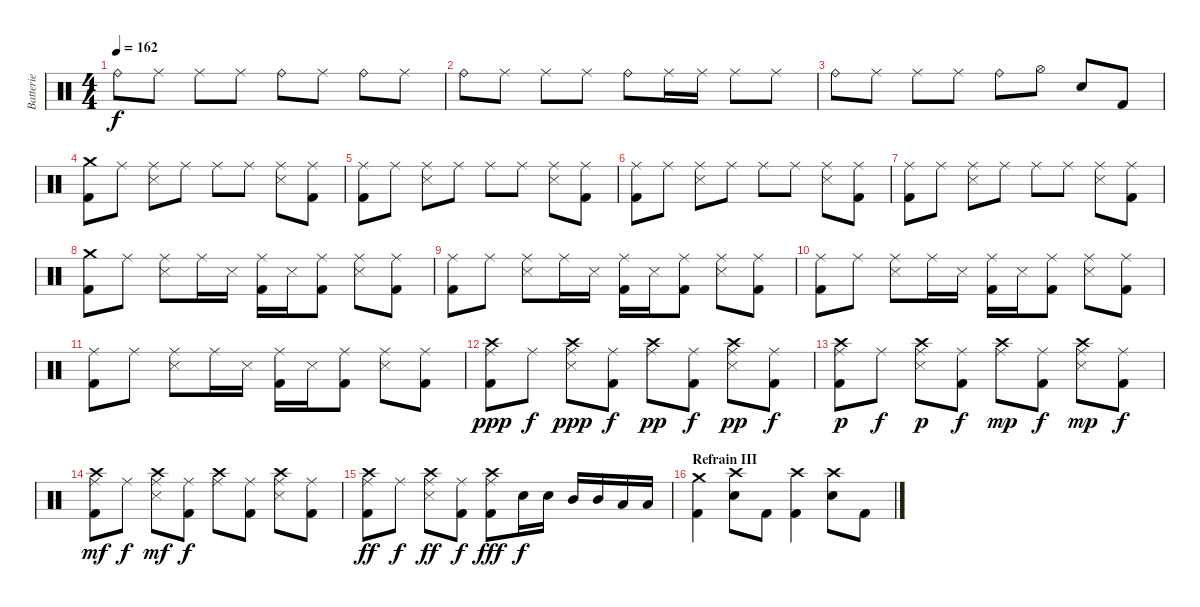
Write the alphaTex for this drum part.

\track ("Batterie" "Batterie") {instrument percussion}
\staff {score}
\articulation defaults
\ts (4 4)
\tempo 162
\clef neutral
\ks c "Ride (bell)".8{dy f} "Ride (middle)".8 "Ride (middle)".8 "Ride (middle)".8 "Ride (bell)".8 "Ride (middle)".8 "Ride (bell)".8 "Ride (middle)".8
|
"Ride (bell)".8 "Ride (middle)".8 "Ride (middle)".8 "Ride (middle)".8 "Ride (bell)".8 "Ride (middle)".16 "Ride (middle)".16 "Ride (middle)".8 "Ride (middle)".8 |
"Ride (bell)".8 "Ride (middle)".8 "Ride (middle)".8 "Ride (middle)".8 "Ride (bell)".8 "Hi-Hat (open)".8 "Electric Snare (hit)".8 "Kick (hit) 2".8 |
("Crash medium (hit)" "Kick (hit) 2").8 "Ride (middle)".8 ("Ride (middle)" "Snare (side stick) 3").8 "Ride (middle)".8 "Ride (middle)".8 "Ride (middle)".8 ("Ride (middle)" "Snare (side stick) 3").8 ("Ride (middle)" "Kick (hit) 2").8 |
("Ride (middle)" "Kick (hit) 2").8 "Ride (middle)".8 ("Ride (middle)" "Snare (side stick) 3").8 "Ride (middle)".8 "Ride (middle)".8 "Ride (middle)".8 ("Ride (middle)" "Snare (side stick) 3").8 ("Ride (middle)" "Kick (hit) 2").8 |
("Ride (middle)" "Kick (hit) 2").8 "Ride (middle)".8 ("Ride (middle)" "Snare (side stick) 3").8 "Ride (middle)".8 "Ride (middle)".8 "Ride (middle)".8 ("Ride (middle)" "Snare (side stick) 3").8 ("Ride (middle)" "Kick (hit) 2").8 |
("Ride (middle)" "Kick (hit) 2").8 "Ride (middle)".8 ("Ride (middle)" "Snare (side stick) 3").8 "Ride (middle)".8 "Ride (middle)".8 "Ride (middle)".8 ("Ride (middle)" "Snare (side stick) 3").8 ("Ride (middle)" "Kick (hit) 2").8 |
("Crash medium (hit)" "Kick (hit) 2").8 "Ride (middle)".8 ("Ride (middle)" "Snare (side stick) 3").8 "Ride (middle)".16 "Snare (side stick) 3".16 ("Ride (middle)" "Kick (hit) 2").16 "Snare (side stick) 3".16 ("Ride (middle)" "Kick (hit) 2").8 ("Ride (middle)" "Snare (side stick) 3").8 ("Ride (middle)" "Kick (hit) 2").8 |
("Ride (middle)" "Kick (hit) 2").8 "Ride (middle)".8 ("Ride (middle)" "Snare (side stick) 3").8 "Ride (middle)".16 "Snare (side stick) 3".16 ("Ride (middle)" "Kick (hit) 2").16 "Snare (side stick) 3".16 ("Ride (middle)" "Kick (hit) 2").8 ("Ride (middle)" "Snare (side stick) 3").8 ("Ride (middle)" "Kick (hit) 2").8 |
("Ride (middle)" "Kick (hit) 2").8 "Ride (middle)".8 ("Ride (middle)" "Snare (side stick) 3").8 "Ride (middle)".16 "Snare (side stick) 3".16 ("Ride (middle)" "Kick (hit) 2").16 "Snare (side stick) 3".16 ("Ride (middle)" "Kick (hit) 2").8 ("Ride (middle)" "Snare (side stick) 3").8 ("Ride (middle)" "Kick (hit) 2").8 |
("Ride (middle)" "Kick (hit) 2").8 "Ride (middle)".8 ("Ride (middle)" "Snare (side stick) 3").8 "Ride (middle)".16 "Snare (side stick) 3".16 ("Ride (middle)" "Kick (hit) 2").16 "Snare (side stick) 3".16 ("Ride (middle)" "Kick (hit) 2").8 ("Ride (middle)" "Snare (side stick) 3").8 ("Ride (middle)" "Kick (hit) 2").8 |
("Crash high (hit)" "Ride (middle)" "Kick (hit) 2").8{dy ppp} "Ride (middle)".8{dy f} ("Crash high (hit)" "Ride (middle)" "Snare (side stick) 3").8{dy ppp} ("Ride (middle)" "Kick (hit) 2").8{dy f} ("Crash high (hit)" "Ride (middle)").8{dy pp} ("Ride (middle)" "Kick (hit) 2").8{dy f} ("Crash high (hit)" "Ride (middle)" "Snare (side stick) 3").8{dy pp} ("Ride (middle)" "Kick (hit) 2").8{dy f} |
("Crash high (hit)" "Ride (middle)" "Kick (hit) 2").8{dy p} "Ride (middle)".8{dy f} ("Crash high (hit)" "Ride (middle)" "Snare (side stick) 3").8{dy p} ("Ride (middle)" "Kick (hit) 2").8{dy f} ("Crash high (hit)" "Ride (middle)").8{dy mp} ("Ride (middle)" "Kick (hit) 2").8{dy f} ("Crash high (hit)" "Ride (middle)" "Snare (side stick) 3").8{dy mp} ("Ride (middle)" "Kick (hit) 2").8{dy f} |
("Crash high (hit)" "Ride (middle)" "Kick (hit) 2").8{dy mf} "Ride (middle)".8{dy f} ("Crash high (hit)" "Ride (middle)" "Snare (side stick) 3").8{dy mf} ("Ride (middle)" "Kick (hit) 2").8{dy f} ("Crash high (hit)" "Ride (middle)").8 ("Ride (middle)" "Kick (hit) 2").8 ("Crash high (hit)" "Ride (middle)" "Snare (side stick) 3").8 ("Ride (middle)" "Kick (hit) 2").8 |
("Crash high (hit)" "Ride (middle)" "Kick (hit) 2").8{dy ff} "Ride (middle)".8{dy f} ("Crash high (hit)" "Ride (middle)" "Snare (side stick) 3").8{dy ff} ("Ride (middle)" "Kick (hit) 2").8{dy f} ("Crash high (hit)" "Ride (middle)" "Kick (hit) 2").8{dy fff} "Electric Snare (hit)".16{dy f} "Electric Snare (hit)".16 "Mid Tom (hit)".16 "Mid Tom (hit)".16 "Low Tom (hit)".16 "Low Tom (hit)".16 |
\section ("" "Refrain III")
("Crash medium (hit)" "Kick (hit) 2").4 ("Crash high (hit)" "Electric Snare (hit)").8 "Kick (hit) 2".8 ("Crash high (hit)" "Kick (hit) 2").4 ("Crash high (hit)" "Electric Snare (hit)").8 "Kick (hit) 2".8
